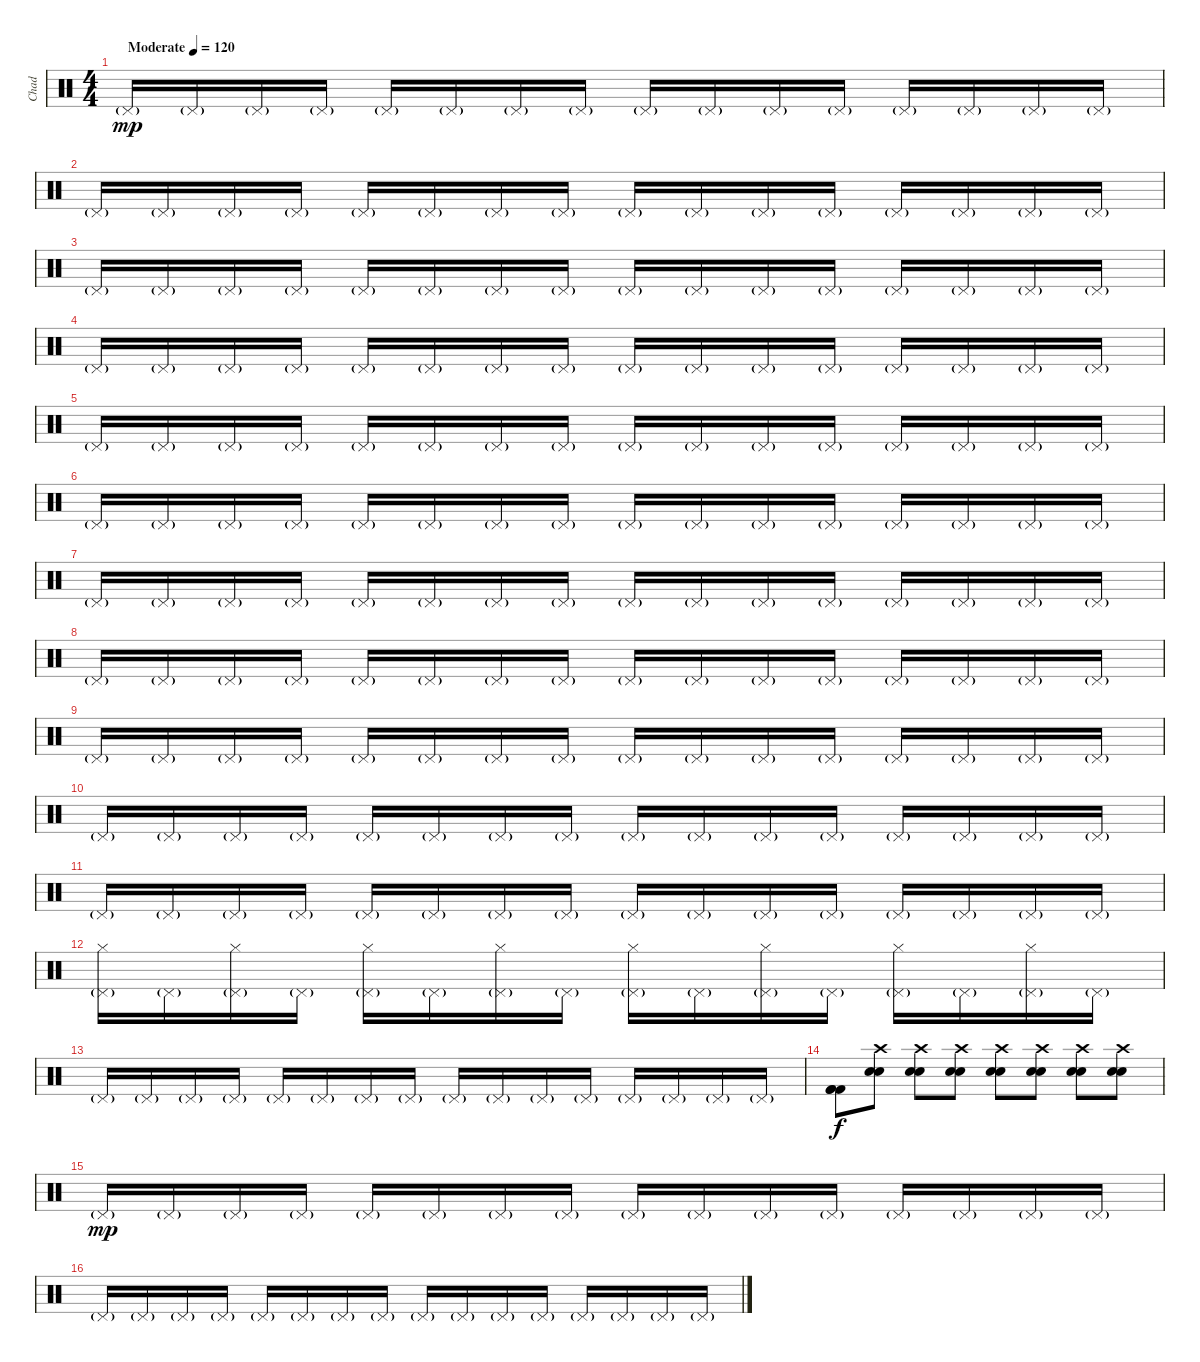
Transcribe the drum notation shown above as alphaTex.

\track ("Chad" "Chad") {instrument percussion}
\staff {score}
\articulation defaults
\ts (4 4)
\tempo (120 "Moderate")
\clef neutral
\ks c "Pedal Hi-Hat (hit)"{g}.16{dy mp} "Pedal Hi-Hat (hit)"{g}.16 "Pedal Hi-Hat (hit)"{g}.16 "Pedal Hi-Hat (hit)"{g}.16 "Pedal Hi-Hat (hit)"{g}.16 "Pedal Hi-Hat (hit)"{g}.16 "Pedal Hi-Hat (hit)"{g}.16 "Pedal Hi-Hat (hit)"{g}.16 "Pedal Hi-Hat (hit)"{g}.16 "Pedal Hi-Hat (hit)"{g}.16 "Pedal Hi-Hat (hit)"{g}.16 "Pedal Hi-Hat (hit)"{g}.16 "Pedal Hi-Hat (hit)"{g}.16 "Pedal Hi-Hat (hit)"{g}.16 "Pedal Hi-Hat (hit)"{g}.16 "Pedal Hi-Hat (hit)"{g}.16
|
"Pedal Hi-Hat (hit)"{g}.16 "Pedal Hi-Hat (hit)"{g}.16 "Pedal Hi-Hat (hit)"{g}.16 "Pedal Hi-Hat (hit)"{g}.16 "Pedal Hi-Hat (hit)"{g}.16 "Pedal Hi-Hat (hit)"{g}.16 "Pedal Hi-Hat (hit)"{g}.16 "Pedal Hi-Hat (hit)"{g}.16 "Pedal Hi-Hat (hit)"{g}.16 "Pedal Hi-Hat (hit)"{g}.16 "Pedal Hi-Hat (hit)"{g}.16 "Pedal Hi-Hat (hit)"{g}.16 "Pedal Hi-Hat (hit)"{g}.16 "Pedal Hi-Hat (hit)"{g}.16 "Pedal Hi-Hat (hit)"{g}.16 "Pedal Hi-Hat (hit)"{g}.16 |
"Pedal Hi-Hat (hit)"{g}.16 "Pedal Hi-Hat (hit)"{g}.16 "Pedal Hi-Hat (hit)"{g}.16 "Pedal Hi-Hat (hit)"{g}.16 "Pedal Hi-Hat (hit)"{g}.16 "Pedal Hi-Hat (hit)"{g}.16 "Pedal Hi-Hat (hit)"{g}.16 "Pedal Hi-Hat (hit)"{g}.16 "Pedal Hi-Hat (hit)"{g}.16 "Pedal Hi-Hat (hit)"{g}.16 "Pedal Hi-Hat (hit)"{g}.16 "Pedal Hi-Hat (hit)"{g}.16 "Pedal Hi-Hat (hit)"{g}.16 "Pedal Hi-Hat (hit)"{g}.16 "Pedal Hi-Hat (hit)"{g}.16 "Pedal Hi-Hat (hit)"{g}.16 |
"Pedal Hi-Hat (hit)"{g}.16 "Pedal Hi-Hat (hit)"{g}.16 "Pedal Hi-Hat (hit)"{g}.16 "Pedal Hi-Hat (hit)"{g}.16 "Pedal Hi-Hat (hit)"{g}.16 "Pedal Hi-Hat (hit)"{g}.16 "Pedal Hi-Hat (hit)"{g}.16 "Pedal Hi-Hat (hit)"{g}.16 "Pedal Hi-Hat (hit)"{g}.16 "Pedal Hi-Hat (hit)"{g}.16 "Pedal Hi-Hat (hit)"{g}.16 "Pedal Hi-Hat (hit)"{g}.16 "Pedal Hi-Hat (hit)"{g}.16 "Pedal Hi-Hat (hit)"{g}.16 "Pedal Hi-Hat (hit)"{g}.16 "Pedal Hi-Hat (hit)"{g}.16 |
"Pedal Hi-Hat (hit)"{g}.16 "Pedal Hi-Hat (hit)"{g}.16 "Pedal Hi-Hat (hit)"{g}.16 "Pedal Hi-Hat (hit)"{g}.16 "Pedal Hi-Hat (hit)"{g}.16 "Pedal Hi-Hat (hit)"{g}.16 "Pedal Hi-Hat (hit)"{g}.16 "Pedal Hi-Hat (hit)"{g}.16 "Pedal Hi-Hat (hit)"{g}.16 "Pedal Hi-Hat (hit)"{g}.16 "Pedal Hi-Hat (hit)"{g}.16 "Pedal Hi-Hat (hit)"{g}.16 "Pedal Hi-Hat (hit)"{g}.16 "Pedal Hi-Hat (hit)"{g}.16 "Pedal Hi-Hat (hit)"{g}.16 "Pedal Hi-Hat (hit)"{g}.16 |
"Pedal Hi-Hat (hit)"{g}.16 "Pedal Hi-Hat (hit)"{g}.16 "Pedal Hi-Hat (hit)"{g}.16 "Pedal Hi-Hat (hit)"{g}.16 "Pedal Hi-Hat (hit)"{g}.16 "Pedal Hi-Hat (hit)"{g}.16 "Pedal Hi-Hat (hit)"{g}.16 "Pedal Hi-Hat (hit)"{g}.16 "Pedal Hi-Hat (hit)"{g}.16 "Pedal Hi-Hat (hit)"{g}.16 "Pedal Hi-Hat (hit)"{g}.16 "Pedal Hi-Hat (hit)"{g}.16 "Pedal Hi-Hat (hit)"{g}.16 "Pedal Hi-Hat (hit)"{g}.16 "Pedal Hi-Hat (hit)"{g}.16 "Pedal Hi-Hat (hit)"{g}.16 |
"Pedal Hi-Hat (hit)"{g}.16 "Pedal Hi-Hat (hit)"{g}.16 "Pedal Hi-Hat (hit)"{g}.16 "Pedal Hi-Hat (hit)"{g}.16 "Pedal Hi-Hat (hit)"{g}.16 "Pedal Hi-Hat (hit)"{g}.16 "Pedal Hi-Hat (hit)"{g}.16 "Pedal Hi-Hat (hit)"{g}.16 "Pedal Hi-Hat (hit)"{g}.16 "Pedal Hi-Hat (hit)"{g}.16 "Pedal Hi-Hat (hit)"{g}.16 "Pedal Hi-Hat (hit)"{g}.16 "Pedal Hi-Hat (hit)"{g}.16 "Pedal Hi-Hat (hit)"{g}.16 "Pedal Hi-Hat (hit)"{g}.16 "Pedal Hi-Hat (hit)"{g}.16 |
"Pedal Hi-Hat (hit)"{g}.16 "Pedal Hi-Hat (hit)"{g}.16 "Pedal Hi-Hat (hit)"{g}.16 "Pedal Hi-Hat (hit)"{g}.16 "Pedal Hi-Hat (hit)"{g}.16 "Pedal Hi-Hat (hit)"{g}.16 "Pedal Hi-Hat (hit)"{g}.16 "Pedal Hi-Hat (hit)"{g}.16 "Pedal Hi-Hat (hit)"{g}.16 "Pedal Hi-Hat (hit)"{g}.16 "Pedal Hi-Hat (hit)"{g}.16 "Pedal Hi-Hat (hit)"{g}.16 "Pedal Hi-Hat (hit)"{g}.16 "Pedal Hi-Hat (hit)"{g}.16 "Pedal Hi-Hat (hit)"{g}.16 "Pedal Hi-Hat (hit)"{g}.16 |
"Pedal Hi-Hat (hit)"{g}.16 "Pedal Hi-Hat (hit)"{g}.16 "Pedal Hi-Hat (hit)"{g}.16 "Pedal Hi-Hat (hit)"{g}.16 "Pedal Hi-Hat (hit)"{g}.16 "Pedal Hi-Hat (hit)"{g}.16 "Pedal Hi-Hat (hit)"{g}.16 "Pedal Hi-Hat (hit)"{g}.16 "Pedal Hi-Hat (hit)"{g}.16 "Pedal Hi-Hat (hit)"{g}.16 "Pedal Hi-Hat (hit)"{g}.16 "Pedal Hi-Hat (hit)"{g}.16 "Pedal Hi-Hat (hit)"{g}.16 "Pedal Hi-Hat (hit)"{g}.16 "Pedal Hi-Hat (hit)"{g}.16 "Pedal Hi-Hat (hit)"{g}.16 |
"Pedal Hi-Hat (hit)"{g}.16 "Pedal Hi-Hat (hit)"{g}.16 "Pedal Hi-Hat (hit)"{g}.16 "Pedal Hi-Hat (hit)"{g}.16 "Pedal Hi-Hat (hit)"{g}.16 "Pedal Hi-Hat (hit)"{g}.16 "Pedal Hi-Hat (hit)"{g}.16 "Pedal Hi-Hat (hit)"{g}.16 "Pedal Hi-Hat (hit)"{g}.16 "Pedal Hi-Hat (hit)"{g}.16 "Pedal Hi-Hat (hit)"{g}.16 "Pedal Hi-Hat (hit)"{g}.16 "Pedal Hi-Hat (hit)"{g}.16 "Pedal Hi-Hat (hit)"{g}.16 "Pedal Hi-Hat (hit)"{g}.16 "Pedal Hi-Hat (hit)"{g}.16 |
"Pedal Hi-Hat (hit)"{g}.16 "Pedal Hi-Hat (hit)"{g}.16 "Pedal Hi-Hat (hit)"{g}.16 "Pedal Hi-Hat (hit)"{g}.16 "Pedal Hi-Hat (hit)"{g}.16 "Pedal Hi-Hat (hit)"{g}.16 "Pedal Hi-Hat (hit)"{g}.16 "Pedal Hi-Hat (hit)"{g}.16 "Pedal Hi-Hat (hit)"{g}.16 "Pedal Hi-Hat (hit)"{g}.16 "Pedal Hi-Hat (hit)"{g}.16 "Pedal Hi-Hat (hit)"{g}.16 "Pedal Hi-Hat (hit)"{g}.16 "Pedal Hi-Hat (hit)"{g}.16 "Pedal Hi-Hat (hit)"{g}.16 "Pedal Hi-Hat (hit)"{g}.16 |
("Pedal Hi-Hat (hit)"{g} "Hi-Hat (closed)").16 "Pedal Hi-Hat (hit)"{g}.16 ("Pedal Hi-Hat (hit)"{g} "Hi-Hat (closed)").16 "Pedal Hi-Hat (hit)"{g}.16 ("Pedal Hi-Hat (hit)"{g} "Hi-Hat (closed)").16 "Pedal Hi-Hat (hit)"{g}.16 ("Pedal Hi-Hat (hit)"{g} "Hi-Hat (closed)").16 "Pedal Hi-Hat (hit)"{g}.16 ("Pedal Hi-Hat (hit)"{g} "Hi-Hat (closed)").16 "Pedal Hi-Hat (hit)"{g}.16 ("Pedal Hi-Hat (hit)"{g} "Hi-Hat (closed)").16 "Pedal Hi-Hat (hit)"{g}.16 ("Pedal Hi-Hat (hit)"{g} "Hi-Hat (closed)").16 "Pedal Hi-Hat (hit)"{g}.16 ("Pedal Hi-Hat (hit)"{g} "Hi-Hat (closed)").16 "Pedal Hi-Hat (hit)"{g}.16 |
"Pedal Hi-Hat (hit)"{g}.16 "Pedal Hi-Hat (hit)"{g}.16 "Pedal Hi-Hat (hit)"{g}.16 "Pedal Hi-Hat (hit)"{g}.16 "Pedal Hi-Hat (hit)"{g}.16 "Pedal Hi-Hat (hit)"{g}.16 "Pedal Hi-Hat (hit)"{g}.16 "Pedal Hi-Hat (hit)"{g}.16 "Pedal Hi-Hat (hit)"{g}.16 "Pedal Hi-Hat (hit)"{g}.16 "Pedal Hi-Hat (hit)"{g}.16 "Pedal Hi-Hat (hit)"{g}.16 "Pedal Hi-Hat (hit)"{g}.16 "Pedal Hi-Hat (hit)"{g}.16 "Pedal Hi-Hat (hit)"{g}.16 "Pedal Hi-Hat (hit)"{g}.16 |
("Kick (hit) 2" "Kick (hit) 2" "Kick (hit) 2").8{dy f} ("Snare (hit) 2" "Electric Snare (hit)" "Crash high (hit)").8 ("Snare (hit) 2" "Electric Snare (hit)" "Crash high (hit)").8 ("Snare (hit) 2" "Electric Snare (hit)" "Crash high (hit)").8 ("Snare (hit) 2" "Electric Snare (hit)" "Crash high (hit)").8 ("Snare (hit) 2" "Electric Snare (hit)" "Crash high (hit)").8 ("Snare (hit) 2" "Electric Snare (hit)" "Crash high (hit)").8 ("Snare (hit) 2" "Electric Snare (hit)" "Crash high (hit)").8 |
"Pedal Hi-Hat (hit)"{g}.16{dy mp} "Pedal Hi-Hat (hit)"{g}.16 "Pedal Hi-Hat (hit)"{g}.16 "Pedal Hi-Hat (hit)"{g}.16 "Pedal Hi-Hat (hit)"{g}.16 "Pedal Hi-Hat (hit)"{g}.16 "Pedal Hi-Hat (hit)"{g}.16 "Pedal Hi-Hat (hit)"{g}.16 "Pedal Hi-Hat (hit)"{g}.16 "Pedal Hi-Hat (hit)"{g}.16 "Pedal Hi-Hat (hit)"{g}.16 "Pedal Hi-Hat (hit)"{g}.16 "Pedal Hi-Hat (hit)"{g}.16 "Pedal Hi-Hat (hit)"{g}.16 "Pedal Hi-Hat (hit)"{g}.16 "Pedal Hi-Hat (hit)"{g}.16 |
"Pedal Hi-Hat (hit)"{g}.16 "Pedal Hi-Hat (hit)"{g}.16 "Pedal Hi-Hat (hit)"{g}.16 "Pedal Hi-Hat (hit)"{g}.16 "Pedal Hi-Hat (hit)"{g}.16 "Pedal Hi-Hat (hit)"{g}.16 "Pedal Hi-Hat (hit)"{g}.16 "Pedal Hi-Hat (hit)"{g}.16 "Pedal Hi-Hat (hit)"{g}.16 "Pedal Hi-Hat (hit)"{g}.16 "Pedal Hi-Hat (hit)"{g}.16 "Pedal Hi-Hat (hit)"{g}.16 "Pedal Hi-Hat (hit)"{g}.16 "Pedal Hi-Hat (hit)"{g}.16 "Pedal Hi-Hat (hit)"{g}.16 "Pedal Hi-Hat (hit)"{g}.16
